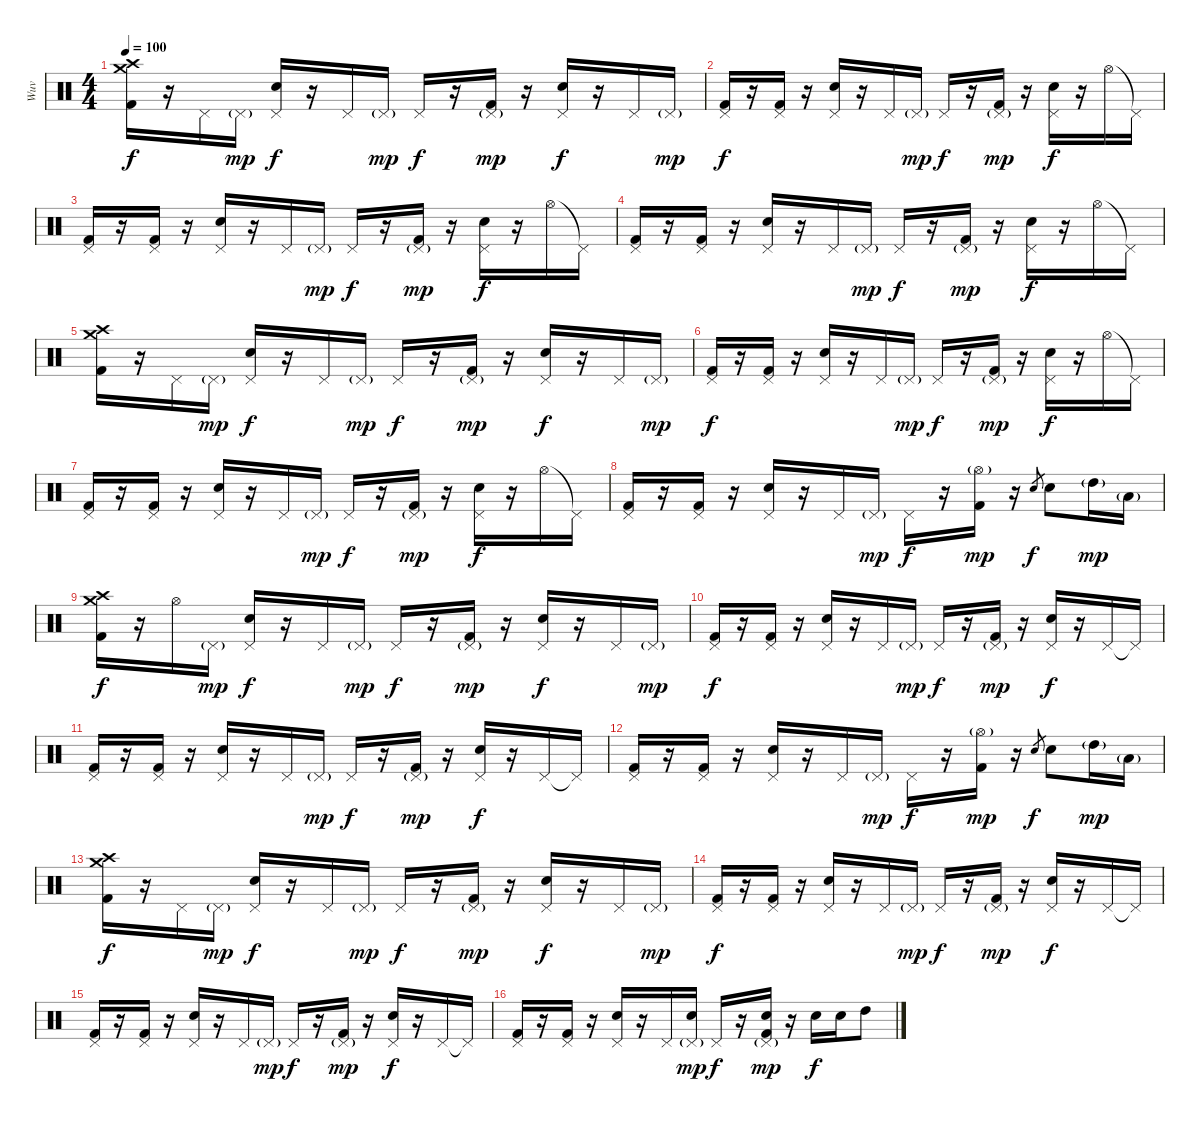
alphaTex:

\track ("Wuv" "Wuv") {instrument percussion}
\staff {score}
\articulation defaults
\ts (4 4)
\tempo 100
\clef neutral
\ks c
("Crash high (hit)" "Crash medium (hit)" "Kick (hit) 2").16{dy f} r.16 "Pedal Hi-Hat (hit)".16 "Pedal Hi-Hat (hit)"{g}.16{dy mp} ("Pedal Hi-Hat (hit)" "Electric Snare (hit)").16{dy f} r.16 "Pedal Hi-Hat (hit)".16 "Pedal Hi-Hat (hit)"{g}.16{dy mp} "Pedal Hi-Hat (hit)".16{dy f} r.16 ("Pedal Hi-Hat (hit)"{g} "Kick (hit) 2").16{dy mp} r.16 ("Pedal Hi-Hat (hit)" "Electric Snare (hit)").16{dy f} r.16 "Pedal Hi-Hat (hit)".16 "Pedal Hi-Hat (hit)"{g}.16{dy mp} |
("Pedal Hi-Hat (hit)" "Kick (hit) 2").16{dy f} r.16 ("Pedal Hi-Hat (hit)" "Kick (hit) 2").16 r.16 ("Pedal Hi-Hat (hit)" "Electric Snare (hit)").16 r.16 "Pedal Hi-Hat (hit)".16 "Pedal Hi-Hat (hit)"{g}.16{dy mp} "Pedal Hi-Hat (hit)".16{dy f} r.16 ("Pedal Hi-Hat (hit)"{g} "Kick (hit) 2").16{dy mp} r.16 ("Pedal Hi-Hat (hit)" "Electric Snare (hit)").16{dy f} r.16 "Hi-Hat (open)".16 "Pedal Hi-Hat (hit)"{t}.16 |
("Pedal Hi-Hat (hit)" "Kick (hit) 2").16 r.16 ("Pedal Hi-Hat (hit)" "Kick (hit) 2").16 r.16 ("Pedal Hi-Hat (hit)" "Electric Snare (hit)").16 r.16 "Pedal Hi-Hat (hit)".16 "Pedal Hi-Hat (hit)"{g}.16{dy mp} "Pedal Hi-Hat (hit)".16{dy f} r.16 ("Pedal Hi-Hat (hit)"{g} "Kick (hit) 2").16{dy mp} r.16 ("Pedal Hi-Hat (hit)" "Electric Snare (hit)").16{dy f} r.16 "Hi-Hat (open)".16 "Pedal Hi-Hat (hit)"{t}.16 |
("Pedal Hi-Hat (hit)" "Kick (hit) 2").16 r.16 ("Pedal Hi-Hat (hit)" "Kick (hit) 2").16 r.16 ("Pedal Hi-Hat (hit)" "Electric Snare (hit)").16 r.16 "Pedal Hi-Hat (hit)".16 "Pedal Hi-Hat (hit)"{g}.16{dy mp} "Pedal Hi-Hat (hit)".16{dy f} r.16 ("Pedal Hi-Hat (hit)"{g} "Kick (hit) 2").16{dy mp} r.16 ("Pedal Hi-Hat (hit)" "Electric Snare (hit)").16{dy f} r.16 "Hi-Hat (open)".16 "Pedal Hi-Hat (hit)"{t}.16 |
("Crash high (hit)" "Crash medium (hit)" "Kick (hit) 2").16 r.16 "Pedal Hi-Hat (hit)".16 "Pedal Hi-Hat (hit)"{g}.16{dy mp} ("Pedal Hi-Hat (hit)" "Electric Snare (hit)").16{dy f} r.16 "Pedal Hi-Hat (hit)".16 "Pedal Hi-Hat (hit)"{g}.16{dy mp} "Pedal Hi-Hat (hit)".16{dy f} r.16 ("Pedal Hi-Hat (hit)"{g} "Kick (hit) 2").16{dy mp} r.16 ("Pedal Hi-Hat (hit)" "Electric Snare (hit)").16{dy f} r.16 "Pedal Hi-Hat (hit)".16 "Pedal Hi-Hat (hit)"{g}.16{dy mp} |
("Pedal Hi-Hat (hit)" "Kick (hit) 2").16{dy f} r.16 ("Pedal Hi-Hat (hit)" "Kick (hit) 2").16 r.16 ("Pedal Hi-Hat (hit)" "Electric Snare (hit)").16 r.16 "Pedal Hi-Hat (hit)".16 "Pedal Hi-Hat (hit)"{g}.16{dy mp} "Pedal Hi-Hat (hit)".16{dy f} r.16 ("Pedal Hi-Hat (hit)"{g} "Kick (hit) 2").16{dy mp} r.16 ("Pedal Hi-Hat (hit)" "Electric Snare (hit)").16{dy f} r.16 "Hi-Hat (open)".16 "Pedal Hi-Hat (hit)"{t}.16 |
("Pedal Hi-Hat (hit)" "Kick (hit) 2").16 r.16 ("Pedal Hi-Hat (hit)" "Kick (hit) 2").16 r.16 ("Pedal Hi-Hat (hit)" "Electric Snare (hit)").16 r.16 "Pedal Hi-Hat (hit)".16 "Pedal Hi-Hat (hit)"{g}.16{dy mp} "Pedal Hi-Hat (hit)".16{dy f} r.16 ("Pedal Hi-Hat (hit)"{g} "Kick (hit) 2").16{dy mp} r.16 ("Pedal Hi-Hat (hit)" "Electric Snare (hit)").16{dy f} r.16 "Hi-Hat (open)".16 "Pedal Hi-Hat (hit)"{t}.16 |
("Pedal Hi-Hat (hit)" "Kick (hit) 2").16 r.16 ("Pedal Hi-Hat (hit)" "Kick (hit) 2").16 r.16 ("Pedal Hi-Hat (hit)" "Electric Snare (hit)").16 r.16 "Pedal Hi-Hat (hit)".16 "Pedal Hi-Hat (hit)"{g}.16{dy mp} "Pedal Hi-Hat (hit)".16{dy f} r.16 ("Hi-Hat (open)"{g} "Kick (hit) 2").16{dy mp} r.16 "Electric Snare (hit)".8{gr dy f} "Electric Snare (hit)".8 "High Tom (hit)"{g}.16{dy mp} "Low Tom (hit)"{g}.16 |
("Crash high (hit)" "Crash medium (hit)" "Kick (hit) 2").16{dy f} r.16 "Hi-Hat (open)".16 "Pedal Hi-Hat (hit)"{g}.16{dy mp} ("Pedal Hi-Hat (hit)" "Electric Snare (hit)").16{dy f} r.16 "Pedal Hi-Hat (hit)".16 "Pedal Hi-Hat (hit)"{g}.16{dy mp} "Pedal Hi-Hat (hit)".16{dy f} r.16 ("Pedal Hi-Hat (hit)"{g} "Kick (hit) 2").16{dy mp} r.16 ("Pedal Hi-Hat (hit)" "Electric Snare (hit)").16{dy f} r.16 "Pedal Hi-Hat (hit)".16 "Pedal Hi-Hat (hit)"{g}.16{dy mp} |
("Pedal Hi-Hat (hit)" "Kick (hit) 2").16{dy f} r.16 ("Pedal Hi-Hat (hit)" "Kick (hit) 2").16 r.16 ("Pedal Hi-Hat (hit)" "Electric Snare (hit)").16 r.16 "Pedal Hi-Hat (hit)".16 "Pedal Hi-Hat (hit)"{g}.16{dy mp} "Pedal Hi-Hat (hit)".16{dy f} r.16 ("Pedal Hi-Hat (hit)"{g} "Kick (hit) 2").16{dy mp} r.16 ("Pedal Hi-Hat (hit)" "Electric Snare (hit)").16{dy f} r.16 "Pedal Hi-Hat (hit)".16 "Pedal Hi-Hat (hit)"{t}.16 |
("Pedal Hi-Hat (hit)" "Kick (hit) 2").16 r.16 ("Pedal Hi-Hat (hit)" "Kick (hit) 2").16 r.16 ("Pedal Hi-Hat (hit)" "Electric Snare (hit)").16 r.16 "Pedal Hi-Hat (hit)".16 "Pedal Hi-Hat (hit)"{g}.16{dy mp} "Pedal Hi-Hat (hit)".16{dy f} r.16 ("Pedal Hi-Hat (hit)"{g} "Kick (hit) 2").16{dy mp} r.16 ("Pedal Hi-Hat (hit)" "Electric Snare (hit)").16{dy f} r.16 "Pedal Hi-Hat (hit)".16 "Pedal Hi-Hat (hit)"{t}.16 |
("Pedal Hi-Hat (hit)" "Kick (hit) 2").16 r.16 ("Pedal Hi-Hat (hit)" "Kick (hit) 2").16 r.16 ("Pedal Hi-Hat (hit)" "Electric Snare (hit)").16 r.16 "Pedal Hi-Hat (hit)".16 "Pedal Hi-Hat (hit)"{g}.16{dy mp} "Pedal Hi-Hat (hit)".16{dy f} r.16 ("Hi-Hat (open)"{g} "Kick (hit) 2").16{dy mp} r.16 "Electric Snare (hit)".8{gr dy f} "Electric Snare (hit)".8 "High Tom (hit)"{g}.16{dy mp} "Low Tom (hit)"{g}.16 |
("Crash high (hit)" "Crash medium (hit)" "Kick (hit) 2").16{dy f} r.16 "Pedal Hi-Hat (hit)".16 "Pedal Hi-Hat (hit)"{g}.16{dy mp} ("Pedal Hi-Hat (hit)" "Electric Snare (hit)").16{dy f} r.16 "Pedal Hi-Hat (hit)".16 "Pedal Hi-Hat (hit)"{g}.16{dy mp} "Pedal Hi-Hat (hit)".16{dy f} r.16 ("Pedal Hi-Hat (hit)"{g} "Kick (hit) 2").16{dy mp} r.16 ("Pedal Hi-Hat (hit)" "Electric Snare (hit)").16{dy f} r.16 "Pedal Hi-Hat (hit)".16 "Pedal Hi-Hat (hit)"{g}.16{dy mp} |
("Pedal Hi-Hat (hit)" "Kick (hit) 2").16{dy f} r.16 ("Pedal Hi-Hat (hit)" "Kick (hit) 2").16 r.16 ("Pedal Hi-Hat (hit)" "Electric Snare (hit)").16 r.16 "Pedal Hi-Hat (hit)".16 "Pedal Hi-Hat (hit)"{g}.16{dy mp} "Pedal Hi-Hat (hit)".16{dy f} r.16 ("Pedal Hi-Hat (hit)"{g} "Kick (hit) 2").16{dy mp} r.16 ("Pedal Hi-Hat (hit)" "Electric Snare (hit)").16{dy f} r.16 "Pedal Hi-Hat (hit)".16 "Pedal Hi-Hat (hit)"{t}.16 |
("Pedal Hi-Hat (hit)" "Kick (hit) 2").16 r.16 ("Pedal Hi-Hat (hit)" "Kick (hit) 2").16 r.16 ("Pedal Hi-Hat (hit)" "Electric Snare (hit)").16 r.16 "Pedal Hi-Hat (hit)".16 "Pedal Hi-Hat (hit)"{g}.16{dy mp} "Pedal Hi-Hat (hit)".16{dy f} r.16 ("Pedal Hi-Hat (hit)"{g} "Kick (hit) 2").16{dy mp} r.16 ("Pedal Hi-Hat (hit)" "Electric Snare (hit)").16{dy f} r.16 "Pedal Hi-Hat (hit)".16 "Pedal Hi-Hat (hit)"{t}.16 |
("Pedal Hi-Hat (hit)" "Kick (hit) 2").16 r.16 ("Pedal Hi-Hat (hit)" "Kick (hit) 2").16 r.16 ("Pedal Hi-Hat (hit)" "Electric Snare (hit)").16 r.16 "Pedal Hi-Hat (hit)".16 ("Pedal Hi-Hat (hit)"{g} "Electric Snare (hit)").16{dy mp} "Pedal Hi-Hat (hit)".16{dy f} r.16 ("Pedal Hi-Hat (hit)"{g} "Electric Snare (hit)" "Kick (hit) 2").16{dy mp} r.16 "Electric Snare (hit)".16{dy f} "Electric Snare (hit)".16 "High Tom (hit)".8
